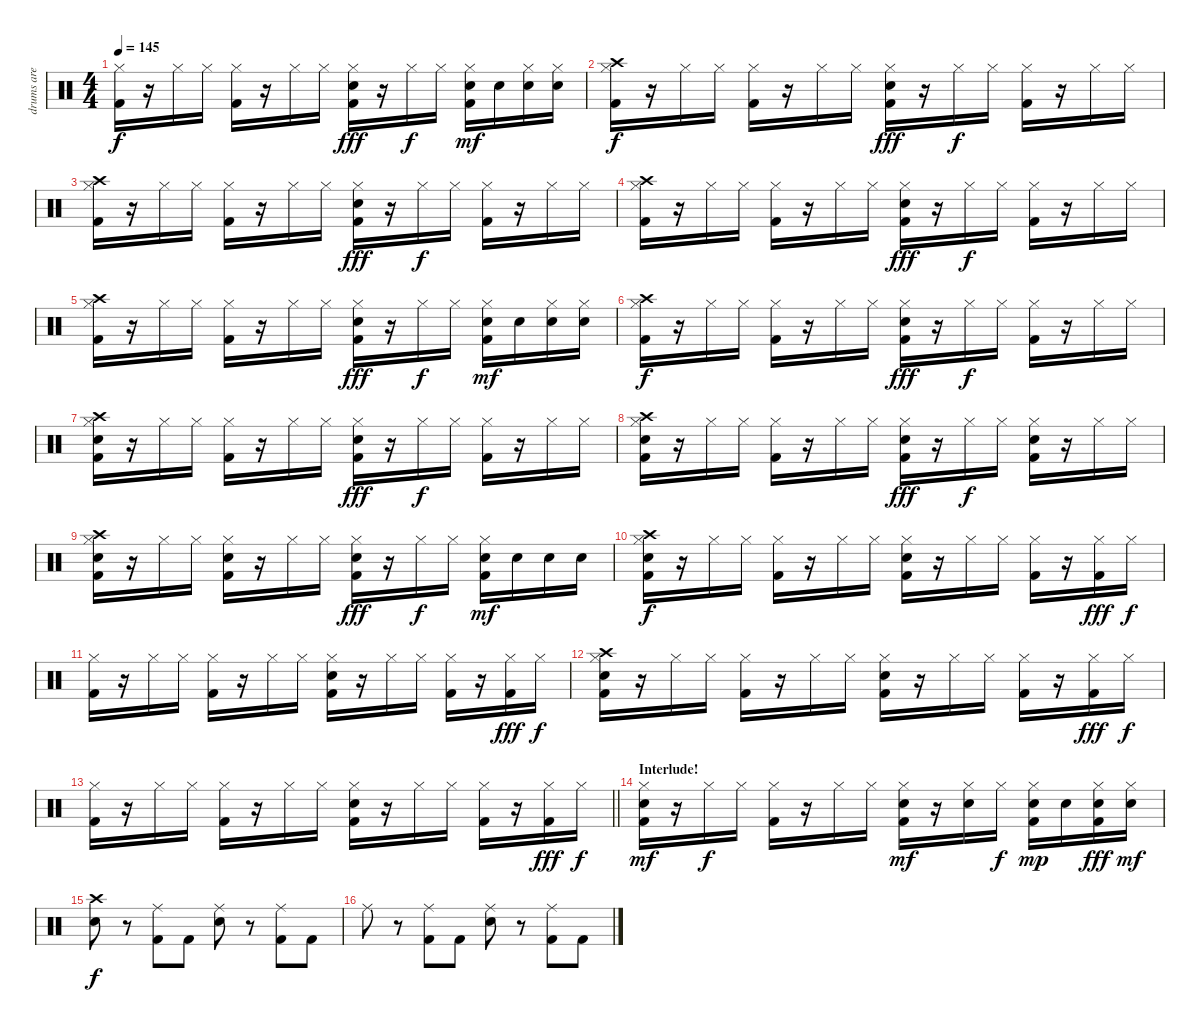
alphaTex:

\track ("drums are cool   >.<" "drums are ") {instrument percussion}
\staff {score}
\articulation defaults
\ts (4 4)
\tempo 145
\clef neutral
\ks c
("Hi-Hat (closed)" "Kick (hit) 2").16{dy f} r.16 "Hi-Hat (closed)".16 "Hi-Hat (closed)".16 ("Hi-Hat (closed)" "Kick (hit) 2").16 r.16 "Hi-Hat (closed)".16 "Hi-Hat (closed)".16 ("Hi-Hat (closed)" "Snare (hit) 2" "Kick (hit) 2").16{dy fff} r.16 "Hi-Hat (closed)".16{dy f} "Hi-Hat (closed)".16 ("Hi-Hat (closed)" "Snare (hit) 2" "Kick (hit) 2").16{dy mf} "Snare (hit) 2".16 ("Hi-Hat (closed)" "Snare (hit) 2").16 ("Hi-Hat (closed)" "Snare (hit) 2").16 |
("Crash high (hit)" "Hi-Hat (closed)" "Kick (hit) 2").16{dy f} r.16 "Hi-Hat (closed)".16 "Hi-Hat (closed)".16 ("Hi-Hat (closed)" "Kick (hit) 2").16 r.16 "Hi-Hat (closed)".16 "Hi-Hat (closed)".16 ("Hi-Hat (closed)" "Snare (hit) 2" "Kick (hit) 2").16{dy fff} r.16 "Hi-Hat (closed)".16{dy f} "Hi-Hat (closed)".16 ("Hi-Hat (closed)" "Kick (hit) 2").16 r.16 "Hi-Hat (closed)".16 "Hi-Hat (closed)".16 |
("Crash high (hit)" "Hi-Hat (closed)" "Kick (hit) 2").16 r.16 "Hi-Hat (closed)".16 "Hi-Hat (closed)".16 ("Hi-Hat (closed)" "Kick (hit) 2").16 r.16 "Hi-Hat (closed)".16 "Hi-Hat (closed)".16 ("Hi-Hat (closed)" "Snare (hit) 2" "Kick (hit) 2").16{dy fff} r.16 "Hi-Hat (closed)".16{dy f} "Hi-Hat (closed)".16 ("Hi-Hat (closed)" "Kick (hit) 2").16 r.16 "Hi-Hat (closed)".16 "Hi-Hat (closed)".16 |
("Crash high (hit)" "Hi-Hat (closed)" "Kick (hit) 2").16 r.16 "Hi-Hat (closed)".16 "Hi-Hat (closed)".16 ("Hi-Hat (closed)" "Kick (hit) 2").16 r.16 "Hi-Hat (closed)".16 "Hi-Hat (closed)".16 ("Hi-Hat (closed)" "Snare (hit) 2" "Kick (hit) 2").16{dy fff} r.16 "Hi-Hat (closed)".16{dy f} "Hi-Hat (closed)".16 ("Hi-Hat (closed)" "Kick (hit) 2").16 r.16 "Hi-Hat (closed)".16 "Hi-Hat (closed)".16 |
("Crash high (hit)" "Hi-Hat (closed)" "Kick (hit) 2").16 r.16 "Hi-Hat (closed)".16 "Hi-Hat (closed)".16 ("Hi-Hat (closed)" "Kick (hit) 2").16 r.16 "Hi-Hat (closed)".16 "Hi-Hat (closed)".16 ("Hi-Hat (closed)" "Snare (hit) 2" "Kick (hit) 2").16{dy fff} r.16 "Hi-Hat (closed)".16{dy f} "Hi-Hat (closed)".16 ("Hi-Hat (closed)" "Snare (hit) 2" "Kick (hit) 2").16{dy mf} "Snare (hit) 2".16 ("Hi-Hat (closed)" "Snare (hit) 2").16 ("Hi-Hat (closed)" "Snare (hit) 2").16 |
("Crash high (hit)" "Hi-Hat (closed)" "Kick (hit) 2").16{dy f} r.16 "Hi-Hat (closed)".16 "Hi-Hat (closed)".16 ("Hi-Hat (closed)" "Kick (hit) 2").16 r.16 "Hi-Hat (closed)".16 "Hi-Hat (closed)".16 ("Hi-Hat (closed)" "Snare (hit) 2" "Kick (hit) 2").16{dy fff} r.16 "Hi-Hat (closed)".16{dy f} "Hi-Hat (closed)".16 ("Hi-Hat (closed)" "Kick (hit) 2").16 r.16 "Hi-Hat (closed)".16 "Hi-Hat (closed)".16 |
("Crash high (hit)" "Hi-Hat (closed)" "Snare (hit) 2" "Kick (hit) 2").16 r.16 "Hi-Hat (closed)".16 "Hi-Hat (closed)".16 ("Hi-Hat (closed)" "Kick (hit) 2").16 r.16 "Hi-Hat (closed)".16 "Hi-Hat (closed)".16 ("Hi-Hat (closed)" "Snare (hit) 2" "Kick (hit) 2").16{dy fff} r.16 "Hi-Hat (closed)".16{dy f} "Hi-Hat (closed)".16 ("Hi-Hat (closed)" "Kick (hit) 2").16 r.16 "Hi-Hat (closed)".16 "Hi-Hat (closed)".16 |
("Crash high (hit)" "Hi-Hat (closed)" "Snare (hit) 2" "Kick (hit) 2").16 r.16 "Hi-Hat (closed)".16 "Hi-Hat (closed)".16 ("Hi-Hat (closed)" "Kick (hit) 2").16 r.16 "Hi-Hat (closed)".16 "Hi-Hat (closed)".16 ("Hi-Hat (closed)" "Snare (hit) 2" "Kick (hit) 2").16{dy fff} r.16 "Hi-Hat (closed)".16{dy f} "Hi-Hat (closed)".16 ("Hi-Hat (closed)" "Snare (hit) 2" "Kick (hit) 2").16 r.16 "Hi-Hat (closed)".16 "Hi-Hat (closed)".16 |
("Crash high (hit)" "Hi-Hat (closed)" "Snare (hit) 2" "Kick (hit) 2").16 r.16 "Hi-Hat (closed)".16 "Hi-Hat (closed)".16 ("Hi-Hat (closed)" "Snare (hit) 2" "Kick (hit) 2").16 r.16 "Hi-Hat (closed)".16 "Hi-Hat (closed)".16 ("Hi-Hat (closed)" "Snare (hit) 2" "Kick (hit) 2").16{dy fff} r.16 "Hi-Hat (closed)".16{dy f} "Hi-Hat (closed)".16 ("Hi-Hat (closed)" "Snare (hit) 2" "Kick (hit) 2").16{dy mf} "Snare (hit) 2".16 "Snare (hit) 2".16 "Snare (hit) 2".16 |
("Crash high (hit)" "Hi-Hat (closed)" "Snare (hit) 2" "Kick (hit) 2").16{dy f} r.16 "Hi-Hat (closed)".16 "Hi-Hat (closed)".16 ("Hi-Hat (closed)" "Kick (hit) 2").16 r.16 "Hi-Hat (closed)".16 "Hi-Hat (closed)".16 ("Hi-Hat (closed)" "Snare (hit) 2" "Kick (hit) 2").16 r.16 "Hi-Hat (closed)".16 "Hi-Hat (closed)".16 ("Hi-Hat (closed)" "Kick (hit) 2").16 r.16 ("Hi-Hat (closed)" "Kick (hit) 2").16{dy fff} "Hi-Hat (closed)".16{dy f} |
("Hi-Hat (closed)" "Kick (hit) 2").16 r.16 "Hi-Hat (closed)".16 "Hi-Hat (closed)".16 ("Hi-Hat (closed)" "Kick (hit) 2").16 r.16 "Hi-Hat (closed)".16 "Hi-Hat (closed)".16 ("Hi-Hat (closed)" "Snare (hit) 2" "Kick (hit) 2").16 r.16 "Hi-Hat (closed)".16 "Hi-Hat (closed)".16 ("Hi-Hat (closed)" "Kick (hit) 2").16 r.16 ("Hi-Hat (closed)" "Kick (hit) 2").16{dy fff} "Hi-Hat (closed)".16{dy f} |
("Crash high (hit)" "Hi-Hat (closed)" "Snare (hit) 2" "Kick (hit) 2").16 r.16 "Hi-Hat (closed)".16 "Hi-Hat (closed)".16 ("Hi-Hat (closed)" "Kick (hit) 2").16 r.16 "Hi-Hat (closed)".16 "Hi-Hat (closed)".16 ("Hi-Hat (closed)" "Snare (hit) 2" "Kick (hit) 2").16 r.16 "Hi-Hat (closed)".16 "Hi-Hat (closed)".16 ("Hi-Hat (closed)" "Kick (hit) 2").16 r.16 ("Hi-Hat (closed)" "Kick (hit) 2").16{dy fff} "Hi-Hat (closed)".16{dy f} |
\barLineRight lightlight
("Hi-Hat (closed)" "Kick (hit) 2").16 r.16 "Hi-Hat (closed)".16 "Hi-Hat (closed)".16 ("Hi-Hat (closed)" "Kick (hit) 2").16 r.16 "Hi-Hat (closed)".16 "Hi-Hat (closed)".16 ("Hi-Hat (closed)" "Snare (hit) 2" "Kick (hit) 2").16 r.16 "Hi-Hat (closed)".16 "Hi-Hat (closed)".16 ("Hi-Hat (closed)" "Kick (hit) 2").16 r.16 ("Hi-Hat (closed)" "Kick (hit) 2").16{dy fff} "Hi-Hat (closed)".16{dy f} |
\section ("" "Interlude!")
("Hi-Hat (closed)" "Snare (hit) 2" "Kick (hit) 2").16{dy mf} r.16 "Hi-Hat (closed)".16{dy f} "Hi-Hat (closed)".16 ("Hi-Hat (closed)" "Kick (hit) 2").16 r.16 "Hi-Hat (closed)".16 "Hi-Hat (closed)".16 ("Hi-Hat (closed)" "Snare (hit) 2" "Kick (hit) 2").16{dy mf} r.16 ("Hi-Hat (closed)" "Snare (hit) 2").16 "Hi-Hat (closed)".16{dy f} ("Hi-Hat (closed)" "Snare (hit) 2" "Kick (hit) 2").16{dy mp} "Snare (hit) 2".16 ("Hi-Hat (closed)" "Snare (hit) 2" "Kick (hit) 2").16{dy fff} ("Hi-Hat (closed)" "Snare (hit) 2").16{dy mf} |
("Crash high (hit)" "Snare (hit) 2").8{dy f} r.8 ("Ride (middle)" "Kick (hit) 2").8 "Kick (hit) 2".8 ("Ride (middle)" "Snare (hit) 2").8 r.8 ("Ride (middle)" "Kick (hit) 2").8 "Kick (hit) 2".8 |
"Ride (middle)".8 r.8 ("Ride (middle)" "Kick (hit) 2").8 "Kick (hit) 2".8 ("Ride (middle)" "Snare (hit) 2").8 r.8 ("Ride (middle)" "Kick (hit) 2").8 "Kick (hit) 2".8
